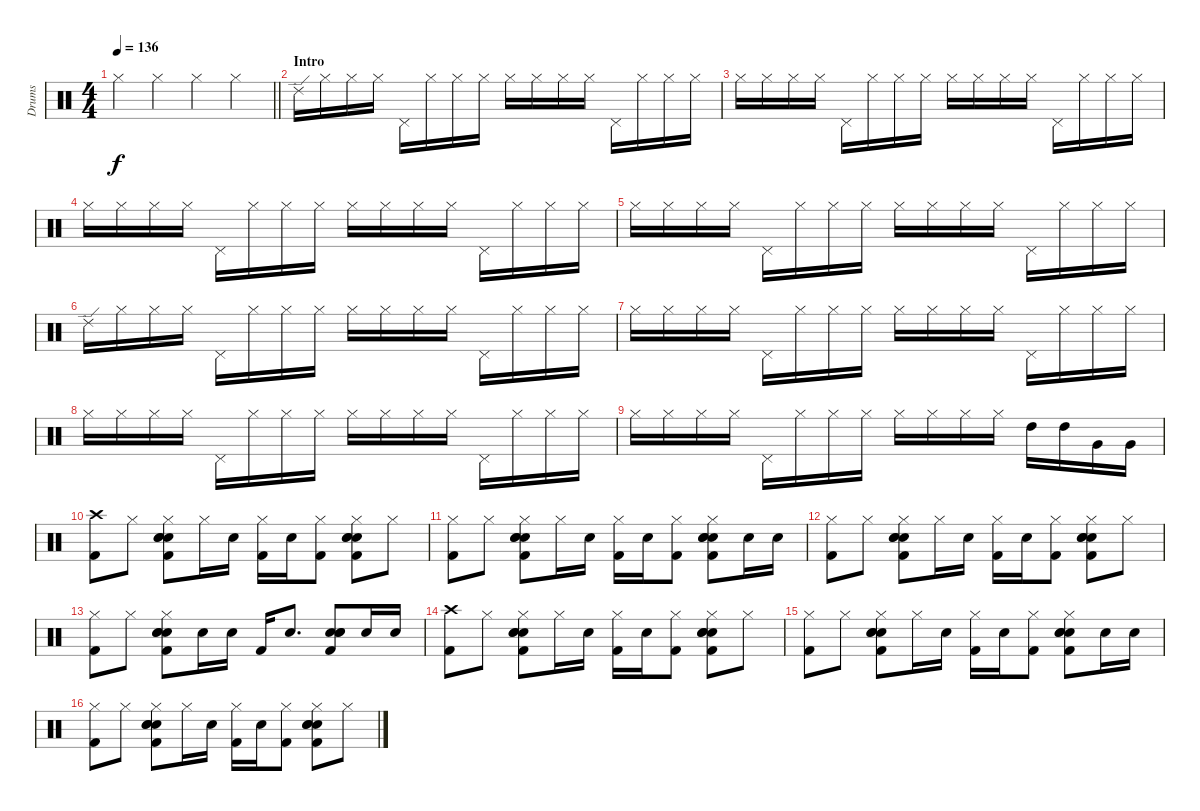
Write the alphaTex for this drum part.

\track ("Drums" "Drums") {instrument percussion}
\staff {score}
\articulation defaults
\ts (4 4)
\tempo 136
\clef neutral
\barLineRight lightlight
\ks c "Hi-Hat (closed)".4{dy f} "Hi-Hat (closed)".4 "Hi-Hat (closed)".4 "Hi-Hat (closed)".4
|
\section ("" "Intro")
"Ride (edge) 2".16 "Hi-Hat (closed)".16 "Hi-Hat (closed)".16 "Hi-Hat (closed)".16 "Pedal Hi-Hat (hit)".16 "Hi-Hat (closed)".16 "Hi-Hat (closed)".16 "Hi-Hat (closed)".16 "Hi-Hat (closed)".16 "Hi-Hat (closed)".16 "Hi-Hat (closed)".16 "Hi-Hat (closed)".16 "Pedal Hi-Hat (hit)".16 "Hi-Hat (closed)".16 "Hi-Hat (closed)".16 "Hi-Hat (closed)".16 |
"Hi-Hat (closed)".16 "Hi-Hat (closed)".16 "Hi-Hat (closed)".16 "Hi-Hat (closed)".16 "Pedal Hi-Hat (hit)".16 "Hi-Hat (closed)".16 "Hi-Hat (closed)".16 "Hi-Hat (closed)".16 "Hi-Hat (closed)".16 "Hi-Hat (closed)".16 "Hi-Hat (closed)".16 "Hi-Hat (closed)".16 "Pedal Hi-Hat (hit)".16 "Hi-Hat (closed)".16 "Hi-Hat (closed)".16 "Hi-Hat (closed)".16 |
"Hi-Hat (closed)".16 "Hi-Hat (closed)".16 "Hi-Hat (closed)".16 "Hi-Hat (closed)".16 "Pedal Hi-Hat (hit)".16 "Hi-Hat (closed)".16 "Hi-Hat (closed)".16 "Hi-Hat (closed)".16 "Hi-Hat (closed)".16 "Hi-Hat (closed)".16 "Hi-Hat (closed)".16 "Hi-Hat (closed)".16 "Pedal Hi-Hat (hit)".16 "Hi-Hat (closed)".16 "Hi-Hat (closed)".16 "Hi-Hat (closed)".16 |
"Hi-Hat (closed)".16 "Hi-Hat (closed)".16 "Hi-Hat (closed)".16 "Hi-Hat (closed)".16 "Pedal Hi-Hat (hit)".16 "Hi-Hat (closed)".16 "Hi-Hat (closed)".16 "Hi-Hat (closed)".16 "Hi-Hat (closed)".16 "Hi-Hat (closed)".16 "Hi-Hat (closed)".16 "Hi-Hat (closed)".16 "Pedal Hi-Hat (hit)".16 "Hi-Hat (closed)".16 "Hi-Hat (closed)".16 "Hi-Hat (closed)".16 |
"Ride (edge) 2".16 "Hi-Hat (closed)".16 "Hi-Hat (closed)".16 "Hi-Hat (closed)".16 "Pedal Hi-Hat (hit)".16 "Hi-Hat (closed)".16 "Hi-Hat (closed)".16 "Hi-Hat (closed)".16 "Hi-Hat (closed)".16 "Hi-Hat (closed)".16 "Hi-Hat (closed)".16 "Hi-Hat (closed)".16 "Pedal Hi-Hat (hit)".16 "Hi-Hat (closed)".16 "Hi-Hat (closed)".16 "Hi-Hat (closed)".16 |
"Hi-Hat (closed)".16 "Hi-Hat (closed)".16 "Hi-Hat (closed)".16 "Hi-Hat (closed)".16 "Pedal Hi-Hat (hit)".16 "Hi-Hat (closed)".16 "Hi-Hat (closed)".16 "Hi-Hat (closed)".16 "Hi-Hat (closed)".16 "Hi-Hat (closed)".16 "Hi-Hat (closed)".16 "Hi-Hat (closed)".16 "Pedal Hi-Hat (hit)".16 "Hi-Hat (closed)".16 "Hi-Hat (closed)".16 "Hi-Hat (closed)".16 |
"Hi-Hat (closed)".16 "Hi-Hat (closed)".16 "Hi-Hat (closed)".16 "Hi-Hat (closed)".16 "Pedal Hi-Hat (hit)".16 "Hi-Hat (closed)".16 "Hi-Hat (closed)".16 "Hi-Hat (closed)".16 "Hi-Hat (closed)".16 "Hi-Hat (closed)".16 "Hi-Hat (closed)".16 "Hi-Hat (closed)".16 "Pedal Hi-Hat (hit)".16 "Hi-Hat (closed)".16 "Hi-Hat (closed)".16 "Hi-Hat (closed)".16 |
"Hi-Hat (closed)".16 "Hi-Hat (closed)".16 "Hi-Hat (closed)".16 "Hi-Hat (closed)".16 "Pedal Hi-Hat (hit)".16 "Hi-Hat (closed)".16 "Hi-Hat (closed)".16 "Hi-Hat (closed)".16 "Hi-Hat (closed)".16 "Hi-Hat (closed)".16 "Hi-Hat (closed)".16 "Hi-Hat (closed)".16 "High Tom (hit)".16 "High Tom (hit)".16 "Very Low Tom (hit)".16 "Very Low Tom (hit)".16 |
("Crash high (hit)" "Kick (hit) 2").8 "Hi-Hat (closed)".8 ("Hi-Hat (closed)" "Electric Snare (hit)" "Electric Snare (hit)" "Electric Snare (hit)" "Kick (hit) 2").8 "Hi-Hat (closed)".16 "Electric Snare (hit)".16 ("Hi-Hat (closed)" "Kick (hit) 2").16 "Electric Snare (hit)".16 ("Hi-Hat (closed)" "Kick (hit) 2").8 ("Hi-Hat (closed)" "Electric Snare (hit)" "Electric Snare (hit)" "Electric Snare (hit)" "Kick (hit) 2").8 "Hi-Hat (closed)".8 |
("Hi-Hat (closed)" "Kick (hit) 2").8 "Hi-Hat (closed)".8 ("Hi-Hat (closed)" "Electric Snare (hit)" "Electric Snare (hit)" "Electric Snare (hit)" "Kick (hit) 2").8 "Hi-Hat (closed)".16 "Electric Snare (hit)".16 ("Hi-Hat (closed)" "Kick (hit) 2").16 "Electric Snare (hit)".16 ("Hi-Hat (closed)" "Kick (hit) 2").8 ("Hi-Hat (closed)" "Electric Snare (hit)" "Electric Snare (hit)" "Electric Snare (hit)" "Kick (hit) 2").8 "Electric Snare (hit)".16 "Electric Snare (hit)".16 |
("Hi-Hat (closed)" "Kick (hit) 2").8 "Hi-Hat (closed)".8 ("Hi-Hat (closed)" "Electric Snare (hit)" "Electric Snare (hit)" "Electric Snare (hit)" "Kick (hit) 2").8 "Hi-Hat (closed)".16 "Electric Snare (hit)".16 ("Hi-Hat (closed)" "Kick (hit) 2").16 "Electric Snare (hit)".16 ("Hi-Hat (closed)" "Kick (hit) 2").8 ("Hi-Hat (closed)" "Electric Snare (hit)" "Electric Snare (hit)" "Electric Snare (hit)" "Kick (hit) 2").8 "Hi-Hat (closed)".8 |
("Hi-Hat (closed)" "Kick (hit) 2").8 "Hi-Hat (closed)".8 ("Hi-Hat (closed)" "Electric Snare (hit)" "Electric Snare (hit)" "Electric Snare (hit)" "Kick (hit) 2").8 "Electric Snare (hit)".16 "Electric Snare (hit)".16 "Kick (hit) 2".16 "Electric Snare (hit)".8{d} ("Electric Snare (hit)" "Electric Snare (hit)" "Electric Snare (hit)" "Kick (hit) 2").8 "Electric Snare (hit)".16 "Electric Snare (hit)".16 |
("Crash high (hit)" "Kick (hit) 2").8 "Hi-Hat (closed)".8 ("Hi-Hat (closed)" "Electric Snare (hit)" "Electric Snare (hit)" "Electric Snare (hit)" "Kick (hit) 2").8 "Hi-Hat (closed)".16 "Electric Snare (hit)".16 ("Hi-Hat (closed)" "Kick (hit) 2").16 "Electric Snare (hit)".16 ("Hi-Hat (closed)" "Kick (hit) 2").8 ("Hi-Hat (closed)" "Electric Snare (hit)" "Electric Snare (hit)" "Electric Snare (hit)" "Kick (hit) 2").8 "Hi-Hat (closed)".8 |
("Hi-Hat (closed)" "Kick (hit) 2").8 "Hi-Hat (closed)".8 ("Hi-Hat (closed)" "Electric Snare (hit)" "Electric Snare (hit)" "Electric Snare (hit)" "Kick (hit) 2").8 "Hi-Hat (closed)".16 "Electric Snare (hit)".16 ("Hi-Hat (closed)" "Kick (hit) 2").16 "Electric Snare (hit)".16 ("Hi-Hat (closed)" "Kick (hit) 2").8 ("Hi-Hat (closed)" "Electric Snare (hit)" "Electric Snare (hit)" "Electric Snare (hit)" "Kick (hit) 2").8 "Electric Snare (hit)".16 "Electric Snare (hit)".16 |
("Hi-Hat (closed)" "Kick (hit) 2").8 "Hi-Hat (closed)".8 ("Hi-Hat (closed)" "Electric Snare (hit)" "Electric Snare (hit)" "Electric Snare (hit)" "Kick (hit) 2").8 "Hi-Hat (closed)".16 "Electric Snare (hit)".16 ("Hi-Hat (closed)" "Kick (hit) 2").16 "Electric Snare (hit)".16 ("Hi-Hat (closed)" "Kick (hit) 2").8 ("Hi-Hat (closed)" "Electric Snare (hit)" "Electric Snare (hit)" "Electric Snare (hit)" "Kick (hit) 2").8 "Hi-Hat (closed)".8
